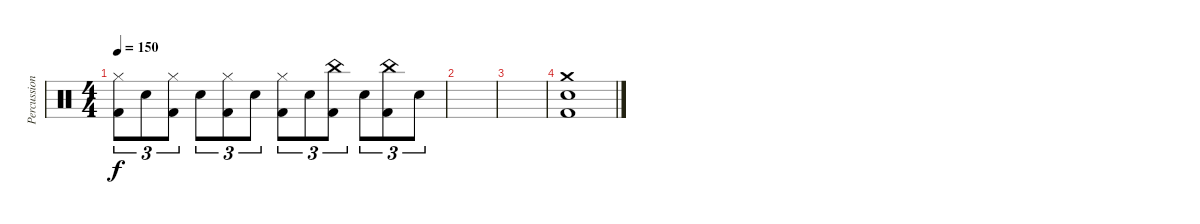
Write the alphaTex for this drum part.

\track ("Percussion" "Percussion") {instrument percussion}
\staff {score}
\articulation defaults
\ts (4 4)
\tempo 150
\clef neutral
\ks c
("Hi-Hat (closed)" "Kick (hit) 2").8{tu (3 2) dy f} "Electric Snare (hit)".8{tu (3 2)} ("Hi-Hat (closed)" "Kick (hit) 2").8{tu (3 2)} "Electric Snare (hit)".8{tu (3 2)} ("Hi-Hat (closed)" "Kick (hit) 2").8{tu (3 2)} "Electric Snare (hit)".8{tu (3 2)} ("Hi-Hat (closed)" "Kick (hit) 2").8{tu (3 2)} "Electric Snare (hit)".8{tu (3 2)} ("China (hit)" "Kick (hit) 2").8{tu (3 2)} "Electric Snare (hit)".8{tu (3 2)} ("China (hit)" "Kick (hit) 2").8{tu (3 2)} "Electric Snare (hit)".8{tu (3 2)} |
|
|
("Crash medium (hit)" "Electric Snare (hit)" "Kick (hit) 2").1
